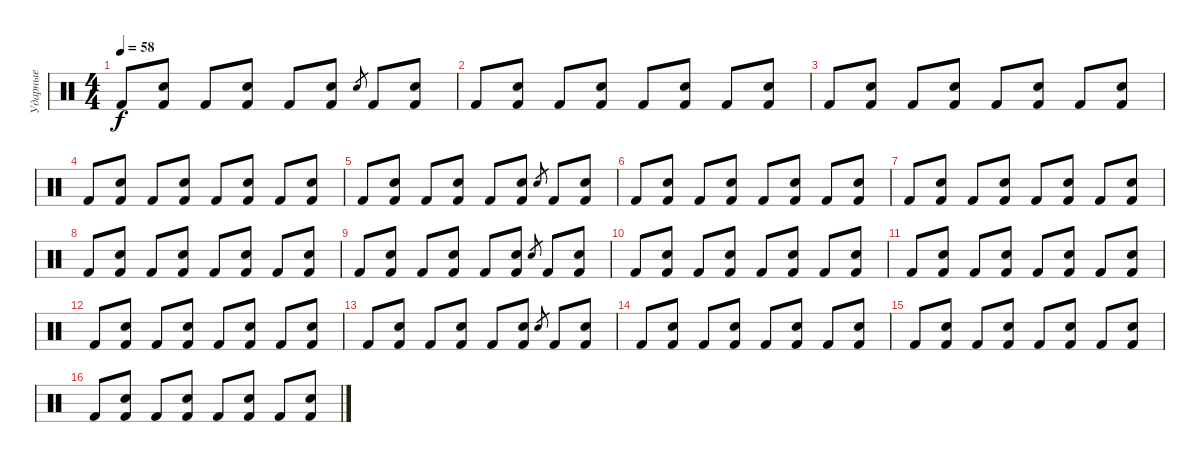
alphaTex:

\track ("Ударные" "Ударные") {instrument percussion}
\staff {score}
\articulation defaults
\ts (4 4)
\tempo 58
\clef neutral
\ks c "Kick (hit) 2".8{dy f}
("Snare (hit) 2" "Kick (hit) 2").8 "Kick (hit) 2".8 ("Snare (hit) 2" "Kick (hit) 2").8 "Kick (hit) 2".8 ("Snare (hit) 2" "Kick (hit) 2").8 "Snare (hit) 2".8{gr} "Kick (hit) 2".8 ("Snare (hit) 2" "Kick (hit) 2").8 |
"Kick (hit) 2".8 ("Snare (hit) 2" "Kick (hit) 2").8 "Kick (hit) 2".8 ("Snare (hit) 2" "Kick (hit) 2").8 "Kick (hit) 2".8 ("Snare (hit) 2" "Kick (hit) 2").8 "Kick (hit) 2".8 ("Snare (hit) 2" "Kick (hit) 2").8 |
"Kick (hit) 2".8 ("Snare (hit) 2" "Kick (hit) 2").8 "Kick (hit) 2".8 ("Snare (hit) 2" "Kick (hit) 2").8 "Kick (hit) 2".8 ("Snare (hit) 2" "Kick (hit) 2").8 "Kick (hit) 2".8 ("Snare (hit) 2" "Kick (hit) 2").8 |
"Kick (hit) 2".8 ("Snare (hit) 2" "Kick (hit) 2").8 "Kick (hit) 2".8 ("Snare (hit) 2" "Kick (hit) 2").8 "Kick (hit) 2".8 ("Snare (hit) 2" "Kick (hit) 2").8 "Kick (hit) 2".8 ("Snare (hit) 2" "Kick (hit) 2").8 |
"Kick (hit) 2".8 ("Snare (hit) 2" "Kick (hit) 2").8 "Kick (hit) 2".8 ("Snare (hit) 2" "Kick (hit) 2").8 "Kick (hit) 2".8 ("Snare (hit) 2" "Kick (hit) 2").8 "Snare (hit) 2".8{gr} "Kick (hit) 2".8 ("Snare (hit) 2" "Kick (hit) 2").8 |
"Kick (hit) 2".8 ("Snare (hit) 2" "Kick (hit) 2").8 "Kick (hit) 2".8 ("Snare (hit) 2" "Kick (hit) 2").8 "Kick (hit) 2".8 ("Snare (hit) 2" "Kick (hit) 2").8 "Kick (hit) 2".8 ("Snare (hit) 2" "Kick (hit) 2").8 |
"Kick (hit) 2".8 ("Snare (hit) 2" "Kick (hit) 2").8 "Kick (hit) 2".8 ("Snare (hit) 2" "Kick (hit) 2").8 "Kick (hit) 2".8 ("Snare (hit) 2" "Kick (hit) 2").8 "Kick (hit) 2".8 ("Snare (hit) 2" "Kick (hit) 2").8 |
"Kick (hit) 2".8 ("Snare (hit) 2" "Kick (hit) 2").8 "Kick (hit) 2".8 ("Snare (hit) 2" "Kick (hit) 2").8 "Kick (hit) 2".8 ("Snare (hit) 2" "Kick (hit) 2").8 "Kick (hit) 2".8 ("Snare (hit) 2" "Kick (hit) 2").8 |
"Kick (hit) 2".8 ("Snare (hit) 2" "Kick (hit) 2").8 "Kick (hit) 2".8 ("Snare (hit) 2" "Kick (hit) 2").8 "Kick (hit) 2".8 ("Snare (hit) 2" "Kick (hit) 2").8 "Snare (hit) 2".8{gr} "Kick (hit) 2".8 ("Snare (hit) 2" "Kick (hit) 2").8 |
"Kick (hit) 2".8 ("Snare (hit) 2" "Kick (hit) 2").8 "Kick (hit) 2".8 ("Snare (hit) 2" "Kick (hit) 2").8 "Kick (hit) 2".8 ("Snare (hit) 2" "Kick (hit) 2").8 "Kick (hit) 2".8 ("Snare (hit) 2" "Kick (hit) 2").8 |
"Kick (hit) 2".8 ("Snare (hit) 2" "Kick (hit) 2").8 "Kick (hit) 2".8 ("Snare (hit) 2" "Kick (hit) 2").8 "Kick (hit) 2".8 ("Snare (hit) 2" "Kick (hit) 2").8 "Kick (hit) 2".8 ("Snare (hit) 2" "Kick (hit) 2").8 |
"Kick (hit) 2".8 ("Snare (hit) 2" "Kick (hit) 2").8 "Kick (hit) 2".8 ("Snare (hit) 2" "Kick (hit) 2").8 "Kick (hit) 2".8 ("Snare (hit) 2" "Kick (hit) 2").8 "Kick (hit) 2".8 ("Snare (hit) 2" "Kick (hit) 2").8 |
"Kick (hit) 2".8 ("Snare (hit) 2" "Kick (hit) 2").8 "Kick (hit) 2".8 ("Snare (hit) 2" "Kick (hit) 2").8 "Kick (hit) 2".8 ("Snare (hit) 2" "Kick (hit) 2").8 "Snare (hit) 2".8{gr} "Kick (hit) 2".8 ("Snare (hit) 2" "Kick (hit) 2").8 |
"Kick (hit) 2".8 ("Snare (hit) 2" "Kick (hit) 2").8 "Kick (hit) 2".8 ("Snare (hit) 2" "Kick (hit) 2").8 "Kick (hit) 2".8 ("Snare (hit) 2" "Kick (hit) 2").8 "Kick (hit) 2".8 ("Snare (hit) 2" "Kick (hit) 2").8 |
"Kick (hit) 2".8 ("Snare (hit) 2" "Kick (hit) 2").8 "Kick (hit) 2".8 ("Snare (hit) 2" "Kick (hit) 2").8 "Kick (hit) 2".8 ("Snare (hit) 2" "Kick (hit) 2").8 "Kick (hit) 2".8 ("Snare (hit) 2" "Kick (hit) 2").8 |
"Kick (hit) 2".8 ("Snare (hit) 2" "Kick (hit) 2").8 "Kick (hit) 2".8 ("Snare (hit) 2" "Kick (hit) 2").8 "Kick (hit) 2".8 ("Snare (hit) 2" "Kick (hit) 2").8 "Kick (hit) 2".8 ("Snare (hit) 2" "Kick (hit) 2").8
